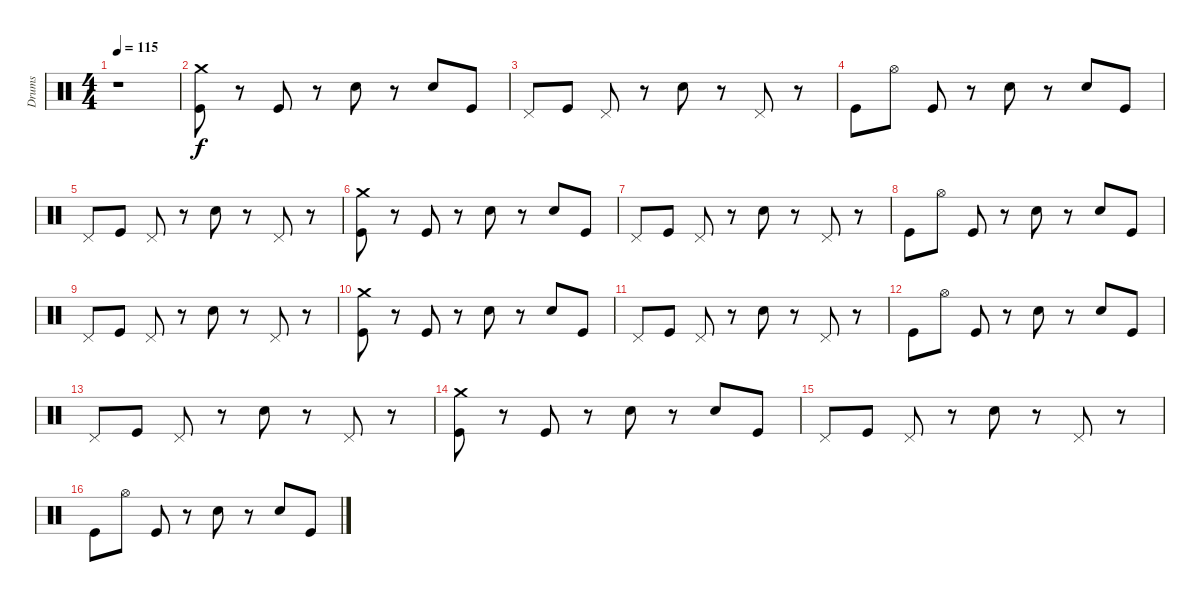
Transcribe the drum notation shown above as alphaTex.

\track ("Drums" "Drums") {instrument percussion}
\staff {score}
\articulation defaults
\ts (4 4)
\tempo 115
\clef neutral
\ks c
r.1{dy f} |
("Crash medium (hit)" "Kick (hit)").8 r.8 "Kick (hit)".8 r.8 "Snare (hit) 2".8 r.8 "Snare (hit) 2".8 "Kick (hit)".8 |
"Pedal Hi-Hat (hit)".8 "Kick (hit)".8 "Pedal Hi-Hat (hit)".8 r.8 "Snare (hit) 2".8 r.8 "Pedal Hi-Hat (hit)".8 r.8 |
"Kick (hit)".8 "Hi-Hat (open)".8 "Kick (hit)".8 r.8 "Snare (hit) 2".8 r.8 "Snare (hit) 2".8 "Kick (hit)".8 |
"Pedal Hi-Hat (hit)".8 "Kick (hit)".8 "Pedal Hi-Hat (hit)".8 r.8 "Snare (hit) 2".8 r.8 "Pedal Hi-Hat (hit)".8 r.8 |
("Crash medium (hit)" "Kick (hit)").8 r.8 "Kick (hit)".8 r.8 "Snare (hit) 2".8 r.8 "Snare (hit) 2".8 "Kick (hit)".8 |
"Pedal Hi-Hat (hit)".8 "Kick (hit)".8 "Pedal Hi-Hat (hit)".8 r.8 "Snare (hit) 2".8 r.8 "Pedal Hi-Hat (hit)".8 r.8 |
"Kick (hit)".8 "Hi-Hat (open)".8 "Kick (hit)".8 r.8 "Snare (hit) 2".8 r.8 "Snare (hit) 2".8 "Kick (hit)".8 |
"Pedal Hi-Hat (hit)".8 "Kick (hit)".8 "Pedal Hi-Hat (hit)".8 r.8 "Snare (hit) 2".8 r.8 "Pedal Hi-Hat (hit)".8 r.8 |
("Crash medium (hit)" "Kick (hit)").8 r.8 "Kick (hit)".8 r.8 "Snare (hit) 2".8 r.8 "Snare (hit) 2".8 "Kick (hit)".8 |
"Pedal Hi-Hat (hit)".8 "Kick (hit)".8 "Pedal Hi-Hat (hit)".8 r.8 "Snare (hit) 2".8 r.8 "Pedal Hi-Hat (hit)".8 r.8 |
"Kick (hit)".8 "Hi-Hat (open)".8 "Kick (hit)".8 r.8 "Snare (hit) 2".8 r.8 "Snare (hit) 2".8 "Kick (hit)".8 |
"Pedal Hi-Hat (hit)".8 "Kick (hit)".8 "Pedal Hi-Hat (hit)".8 r.8 "Snare (hit) 2".8 r.8 "Pedal Hi-Hat (hit)".8 r.8 |
("Crash medium (hit)" "Kick (hit)").8 r.8 "Kick (hit)".8 r.8 "Snare (hit) 2".8 r.8 "Snare (hit) 2".8 "Kick (hit)".8 |
"Pedal Hi-Hat (hit)".8 "Kick (hit)".8 "Pedal Hi-Hat (hit)".8 r.8 "Snare (hit) 2".8 r.8 "Pedal Hi-Hat (hit)".8 r.8 |
"Kick (hit)".8 "Hi-Hat (open)".8 "Kick (hit)".8 r.8 "Snare (hit) 2".8 r.8 "Snare (hit) 2".8 "Kick (hit)".8
